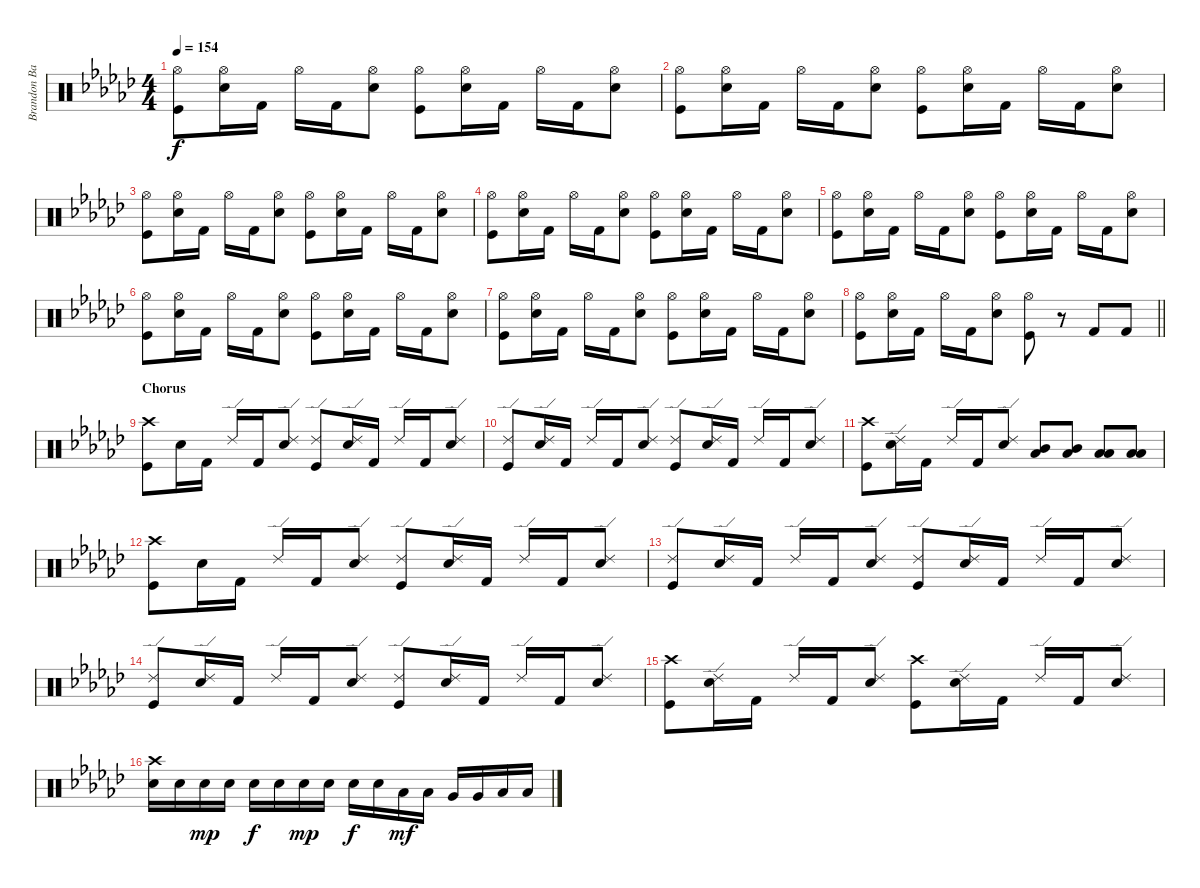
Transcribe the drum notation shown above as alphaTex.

\track ("Brandon Barnes - Drums" "Brandon Ba") {instrument percussion}
\staff {score}
\articulation defaults
\ts (4 4)
\tempo 154
\clef neutral
\ks gb
("Kick (hit)" "Hi-Hat (open)").8{dy f} ("Snare (hit) 2" "Hi-Hat (open)").16 "Kick (hit) 2".16 "Hi-Hat (open)".16 "Kick (hit) 2".16 ("Snare (hit) 2" "Hi-Hat (open)").8 ("Kick (hit)" "Hi-Hat (open)").8 ("Snare (hit) 2" "Hi-Hat (open)").16 "Kick (hit) 2".16 "Hi-Hat (open)".16 "Kick (hit) 2".16 ("Snare (hit) 2" "Hi-Hat (open)").8 |
("Kick (hit)" "Hi-Hat (open)").8 ("Snare (hit) 2" "Hi-Hat (open)").16 "Kick (hit) 2".16 "Hi-Hat (open)".16 "Kick (hit) 2".16 ("Snare (hit) 2" "Hi-Hat (open)").8 ("Kick (hit)" "Hi-Hat (open)").8 ("Snare (hit) 2" "Hi-Hat (open)").16 "Kick (hit) 2".16 "Hi-Hat (open)".16 "Kick (hit) 2".16 ("Snare (hit) 2" "Hi-Hat (open)").8 |
("Kick (hit)" "Hi-Hat (open)").8 ("Snare (hit) 2" "Hi-Hat (open)").16 "Kick (hit) 2".16 "Hi-Hat (open)".16 "Kick (hit) 2".16 ("Snare (hit) 2" "Hi-Hat (open)").8 ("Kick (hit)" "Hi-Hat (open)").8 ("Snare (hit) 2" "Hi-Hat (open)").16 "Kick (hit) 2".16 "Hi-Hat (open)".16 "Kick (hit) 2".16 ("Snare (hit) 2" "Hi-Hat (open)").8 |
("Kick (hit)" "Hi-Hat (open)").8 ("Snare (hit) 2" "Hi-Hat (open)").16 "Kick (hit) 2".16 "Hi-Hat (open)".16 "Kick (hit) 2".16 ("Snare (hit) 2" "Hi-Hat (open)").8 ("Kick (hit)" "Hi-Hat (open)").8 ("Snare (hit) 2" "Hi-Hat (open)").16 "Kick (hit) 2".16 "Hi-Hat (open)".16 "Kick (hit) 2".16 ("Snare (hit) 2" "Hi-Hat (open)").8 |
("Kick (hit)" "Hi-Hat (open)").8 ("Snare (hit) 2" "Hi-Hat (open)").16 "Kick (hit) 2".16 "Hi-Hat (open)".16 "Kick (hit) 2".16 ("Snare (hit) 2" "Hi-Hat (open)").8 ("Kick (hit)" "Hi-Hat (open)").8 ("Snare (hit) 2" "Hi-Hat (open)").16 "Kick (hit) 2".16 "Hi-Hat (open)".16 "Kick (hit) 2".16 ("Snare (hit) 2" "Hi-Hat (open)").8 |
("Kick (hit)" "Hi-Hat (open)").8 ("Snare (hit) 2" "Hi-Hat (open)").16 "Kick (hit) 2".16 "Hi-Hat (open)".16 "Kick (hit) 2".16 ("Snare (hit) 2" "Hi-Hat (open)").8 ("Kick (hit)" "Hi-Hat (open)").8 ("Snare (hit) 2" "Hi-Hat (open)").16 "Kick (hit) 2".16 "Hi-Hat (open)".16 "Kick (hit) 2".16 ("Snare (hit) 2" "Hi-Hat (open)").8 |
("Kick (hit)" "Hi-Hat (open)").8 ("Snare (hit) 2" "Hi-Hat (open)").16 "Kick (hit) 2".16 "Hi-Hat (open)".16 "Kick (hit) 2".16 ("Snare (hit) 2" "Hi-Hat (open)").8 ("Kick (hit)" "Hi-Hat (open)").8 ("Snare (hit) 2" "Hi-Hat (open)").16 "Kick (hit) 2".16 "Hi-Hat (open)".16 "Kick (hit) 2".16 ("Snare (hit) 2" "Hi-Hat (open)").8 |
\barLineRight lightlight
("Kick (hit)" "Hi-Hat (open)").8 ("Snare (hit) 2" "Hi-Hat (open)").16 "Kick (hit) 2".16 "Hi-Hat (open)".16 "Kick (hit) 2".16 ("Snare (hit) 2" "Hi-Hat (open)").8 ("Kick (hit)" "Hi-Hat (open)").8 r.8 "Kick (hit) 2".8 "Kick (hit) 2".8 |
\section ("" "Chorus")
("Kick (hit)" "Crash high (hit)").8 "Snare (hit) 2".16 "Kick (hit) 2".16 "Ride (edge) 2".16 "Kick (hit) 2".16 ("Snare (hit) 2" "Ride (edge) 2").8 ("Kick (hit)" "Ride (edge) 2").8 ("Snare (hit) 2" "Ride (edge) 2").16 "Kick (hit) 2".16 "Ride (edge) 2".16 "Kick (hit) 2".16 ("Snare (hit) 2" "Ride (edge) 2").8 |
("Kick (hit)" "Ride (edge) 2").8 ("Snare (hit) 2" "Ride (edge) 2").16 "Kick (hit) 2".16 "Ride (edge) 2".16 "Kick (hit) 2".16 ("Snare (hit) 2" "Ride (edge) 2").8 ("Kick (hit)" "Ride (edge) 2").8 ("Snare (hit) 2" "Ride (edge) 2").16 "Kick (hit) 2".16 "Ride (edge) 2".16 "Kick (hit) 2".16 ("Snare (hit) 2" "Ride (edge) 2").8 |
("Kick (hit)" "Crash high (hit)").8 ("Snare (hit) 2" "Ride (edge) 2").16 "Kick (hit) 2".16 "Ride (edge) 2".16 "Kick (hit) 2".16 ("Snare (hit) 2" "Ride (edge) 2").8 ("Mid Tom (hit)" "Low Floor Tom (hit)").8 ("Mid Tom (hit)" "Low Floor Tom (hit)").8 ("Low Tom (hit)" "Low Floor Tom (hit)").8 ("Low Tom (hit)" "Low Floor Tom (hit)").8 |
("Kick (hit)" "Crash high (hit)").8 "Snare (hit) 2".16 "Kick (hit) 2".16 "Ride (edge) 2".16 "Kick (hit) 2".16 ("Snare (hit) 2" "Ride (edge) 2").8 ("Kick (hit)" "Ride (edge) 2").8 ("Snare (hit) 2" "Ride (edge) 2").16 "Kick (hit) 2".16 "Ride (edge) 2".16 "Kick (hit) 2".16 ("Snare (hit) 2" "Ride (edge) 2").8 |
("Kick (hit)" "Ride (edge) 2").8 ("Snare (hit) 2" "Ride (edge) 2").16 "Kick (hit) 2".16 "Ride (edge) 2".16 "Kick (hit) 2".16 ("Snare (hit) 2" "Ride (edge) 2").8 ("Kick (hit)" "Ride (edge) 2").8 ("Snare (hit) 2" "Ride (edge) 2").16 "Kick (hit) 2".16 "Ride (edge) 2".16 "Kick (hit) 2".16 ("Snare (hit) 2" "Ride (edge) 2").8 |
("Kick (hit)" "Ride (edge) 2").8 ("Snare (hit) 2" "Ride (edge) 2").16 "Kick (hit) 2".16 "Ride (edge) 2".16 "Kick (hit) 2".16 ("Snare (hit) 2" "Ride (edge) 2").8 ("Kick (hit)" "Ride (edge) 2").8 ("Snare (hit) 2" "Ride (edge) 2").16 "Kick (hit) 2".16 "Ride (edge) 2".16 "Kick (hit) 2".16 ("Snare (hit) 2" "Ride (edge) 2").8 |
("Kick (hit)" "Crash high (hit)").8 ("Snare (hit) 2" "Ride (edge) 2").16 "Kick (hit) 2".16 "Ride (edge) 2".16 "Kick (hit) 2".16 ("Snare (hit) 2" "Ride (edge) 2").8 ("Kick (hit)" "Crash high (hit)").8 ("Snare (hit) 2" "Ride (edge) 2").16 "Kick (hit) 2".16 "Ride (edge) 2".16 "Kick (hit) 2".16 ("Snare (hit) 2" "Ride (edge) 2").8 |
("Crash high (hit)" "Snare (hit) 2").16 "Snare (hit) 2".16 "Snare (hit) 2".16{dy mp} "Snare (hit) 2".16 "Snare (hit) 2".16{dy f} "Snare (hit) 2".16 "Snare (hit) 2".16{dy mp} "Snare (hit) 2".16 "Snare (hit) 2".16{dy f} "Snare (hit) 2".16 "Low Tom (hit)".16{dy mf} "Low Tom (hit)".16 "Very Low Tom (hit)".16 "Very Low Tom (hit)".16 "Low Floor Tom (hit)".16 "Low Floor Tom (hit)".16
